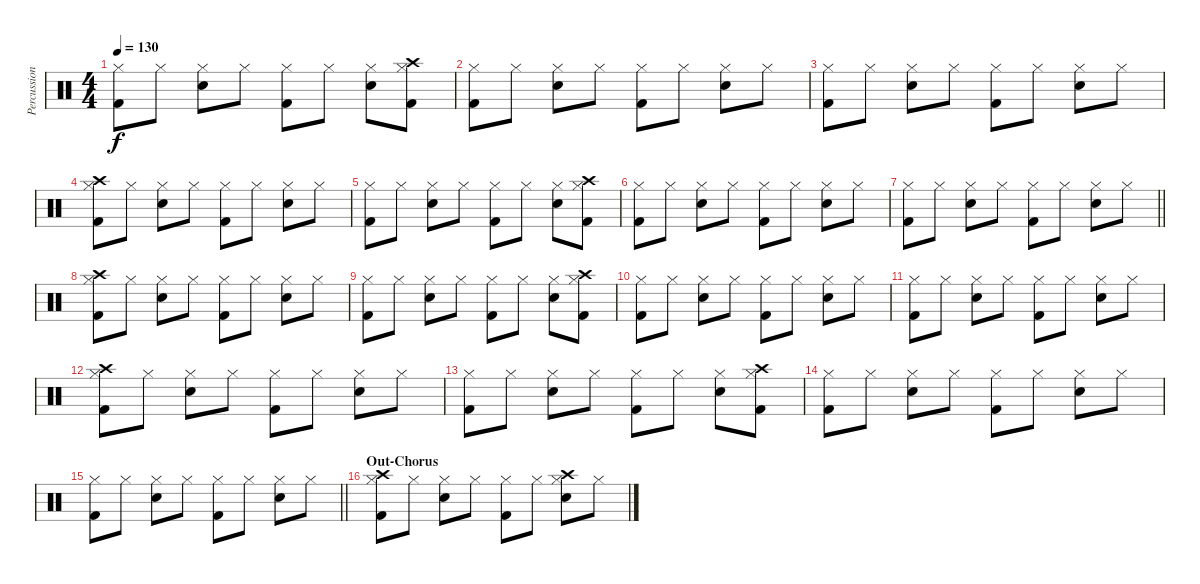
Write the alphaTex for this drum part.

\track ("Percussion" "Percussion") {instrument percussion}
\staff {score}
\articulation defaults
\ts (4 4)
\tempo 130
\clef neutral
\ks c
("Kick (hit) 2" "Hi-Hat (closed)").8{dy f} "Hi-Hat (closed)".8 ("Hi-Hat (closed)" "Snare (hit) 2").8 "Hi-Hat (closed)".8 ("Hi-Hat (closed)" "Kick (hit) 2").8 "Hi-Hat (closed)".8 ("Hi-Hat (closed)" "Snare (hit) 2").8 ("Hi-Hat (closed)" "Kick (hit) 2" "Crash high (hit)").8 |
("Kick (hit) 2" "Hi-Hat (closed)").8 "Hi-Hat (closed)".8 ("Hi-Hat (closed)" "Snare (hit) 2").8 "Hi-Hat (closed)".8 ("Hi-Hat (closed)" "Kick (hit) 2").8 "Hi-Hat (closed)".8 ("Hi-Hat (closed)" "Snare (hit) 2").8 "Hi-Hat (closed)".8 |
("Kick (hit) 2" "Hi-Hat (closed)").8 "Hi-Hat (closed)".8 ("Hi-Hat (closed)" "Snare (hit) 2").8 "Hi-Hat (closed)".8 ("Hi-Hat (closed)" "Kick (hit) 2").8 "Hi-Hat (closed)".8 ("Hi-Hat (closed)" "Snare (hit) 2").8 "Hi-Hat (closed)".8 |
("Kick (hit) 2" "Hi-Hat (closed)" "Crash high (hit)").8 "Hi-Hat (closed)".8 ("Hi-Hat (closed)" "Snare (hit) 2").8 "Hi-Hat (closed)".8 ("Hi-Hat (closed)" "Kick (hit) 2").8 "Hi-Hat (closed)".8 ("Hi-Hat (closed)" "Snare (hit) 2").8 "Hi-Hat (closed)".8 |
("Kick (hit) 2" "Hi-Hat (closed)").8 "Hi-Hat (closed)".8 ("Hi-Hat (closed)" "Snare (hit) 2").8 "Hi-Hat (closed)".8 ("Hi-Hat (closed)" "Kick (hit) 2").8 "Hi-Hat (closed)".8 ("Hi-Hat (closed)" "Snare (hit) 2").8 ("Hi-Hat (closed)" "Kick (hit) 2" "Crash high (hit)").8 |
("Kick (hit) 2" "Hi-Hat (closed)").8 "Hi-Hat (closed)".8 ("Hi-Hat (closed)" "Snare (hit) 2").8 "Hi-Hat (closed)".8 ("Hi-Hat (closed)" "Kick (hit) 2").8 "Hi-Hat (closed)".8 ("Hi-Hat (closed)" "Snare (hit) 2").8 "Hi-Hat (closed)".8 |
\barLineRight lightlight
("Kick (hit) 2" "Hi-Hat (closed)").8 "Hi-Hat (closed)".8 ("Hi-Hat (closed)" "Snare (hit) 2").8 "Hi-Hat (closed)".8 ("Hi-Hat (closed)" "Kick (hit) 2").8 "Hi-Hat (closed)".8 ("Hi-Hat (closed)" "Snare (hit) 2").8 "Hi-Hat (closed)".8 |
("Kick (hit) 2" "Hi-Hat (closed)" "Crash high (hit)").8 "Hi-Hat (closed)".8 ("Hi-Hat (closed)" "Snare (hit) 2").8 "Hi-Hat (closed)".8 ("Hi-Hat (closed)" "Kick (hit) 2").8 "Hi-Hat (closed)".8 ("Hi-Hat (closed)" "Snare (hit) 2").8 "Hi-Hat (closed)".8 |
("Kick (hit) 2" "Hi-Hat (closed)").8 "Hi-Hat (closed)".8 ("Hi-Hat (closed)" "Snare (hit) 2").8 "Hi-Hat (closed)".8 ("Hi-Hat (closed)" "Kick (hit) 2").8 "Hi-Hat (closed)".8 ("Hi-Hat (closed)" "Snare (hit) 2").8 ("Hi-Hat (closed)" "Kick (hit) 2" "Crash high (hit)").8 |
("Kick (hit) 2" "Hi-Hat (closed)").8 "Hi-Hat (closed)".8 ("Hi-Hat (closed)" "Snare (hit) 2").8 "Hi-Hat (closed)".8 ("Hi-Hat (closed)" "Kick (hit) 2").8 "Hi-Hat (closed)".8 ("Hi-Hat (closed)" "Snare (hit) 2").8 "Hi-Hat (closed)".8 |
("Kick (hit) 2" "Hi-Hat (closed)").8 "Hi-Hat (closed)".8 ("Hi-Hat (closed)" "Snare (hit) 2").8 "Hi-Hat (closed)".8 ("Hi-Hat (closed)" "Kick (hit) 2").8 "Hi-Hat (closed)".8 ("Hi-Hat (closed)" "Snare (hit) 2").8 "Hi-Hat (closed)".8 |
("Kick (hit) 2" "Hi-Hat (closed)" "Crash high (hit)").8 "Hi-Hat (closed)".8 ("Hi-Hat (closed)" "Snare (hit) 2").8 "Hi-Hat (closed)".8 ("Hi-Hat (closed)" "Kick (hit) 2").8 "Hi-Hat (closed)".8 ("Hi-Hat (closed)" "Snare (hit) 2").8 "Hi-Hat (closed)".8 |
("Kick (hit) 2" "Hi-Hat (closed)").8 "Hi-Hat (closed)".8 ("Hi-Hat (closed)" "Snare (hit) 2").8 "Hi-Hat (closed)".8 ("Hi-Hat (closed)" "Kick (hit) 2").8 "Hi-Hat (closed)".8 ("Hi-Hat (closed)" "Snare (hit) 2").8 ("Hi-Hat (closed)" "Kick (hit) 2" "Crash high (hit)").8 |
("Kick (hit) 2" "Hi-Hat (closed)").8 "Hi-Hat (closed)".8 ("Hi-Hat (closed)" "Snare (hit) 2").8 "Hi-Hat (closed)".8 ("Hi-Hat (closed)" "Kick (hit) 2").8 "Hi-Hat (closed)".8 ("Hi-Hat (closed)" "Snare (hit) 2").8 "Hi-Hat (closed)".8 |
\barLineRight lightlight
("Kick (hit) 2" "Hi-Hat (closed)").8 "Hi-Hat (closed)".8 ("Hi-Hat (closed)" "Snare (hit) 2").8 "Hi-Hat (closed)".8 ("Hi-Hat (closed)" "Kick (hit) 2").8 "Hi-Hat (closed)".8 ("Hi-Hat (closed)" "Snare (hit) 2").8 "Hi-Hat (closed)".8 |
\section ("" "Out-Chorus")
("Kick (hit) 2" "Hi-Hat (closed)" "Crash high (hit)").8 "Hi-Hat (closed)".8 ("Hi-Hat (closed)" "Snare (hit) 2").8 "Hi-Hat (closed)".8 ("Hi-Hat (closed)" "Kick (hit) 2").8 "Hi-Hat (closed)".8 ("Hi-Hat (closed)" "Snare (hit) 2" "Crash high (hit)").8 "Hi-Hat (closed)".8
